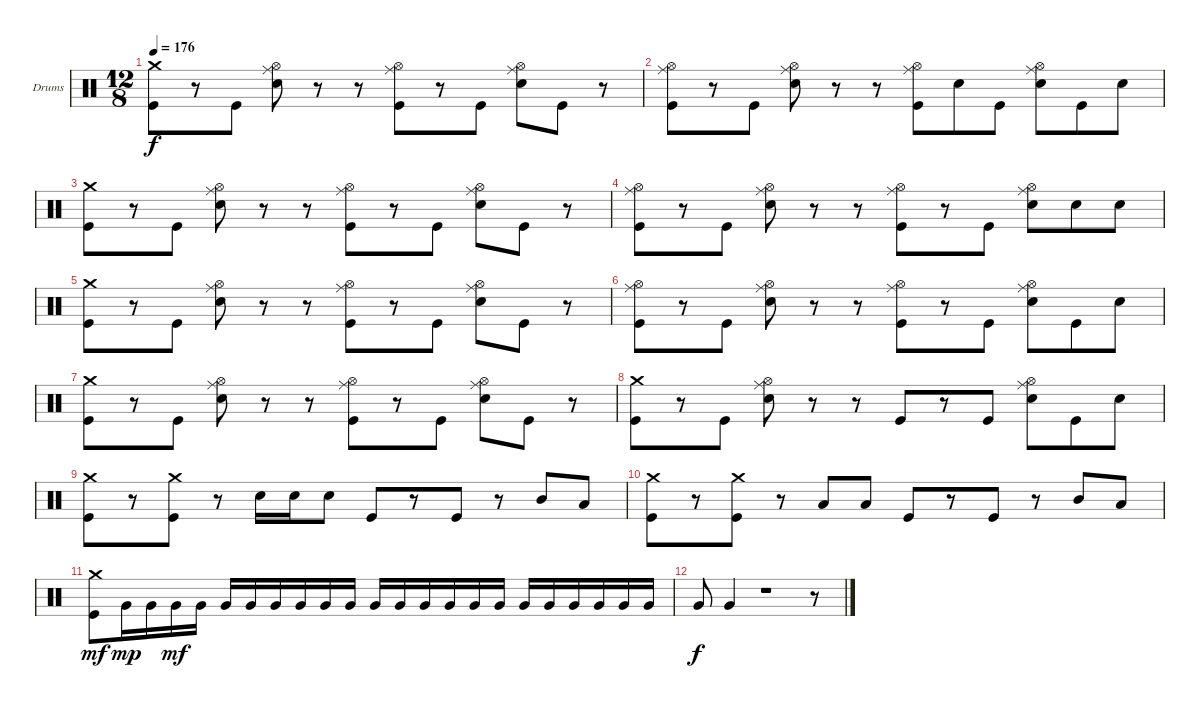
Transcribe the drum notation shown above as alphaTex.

\defaultSystemsLayout 4
\bracketExtendMode groupsimilarinstruments
\firstSystemTrackNameOrientation horizontal
\otherSystemsTrackNameOrientation horizontal
\track ("Drumkit" "Drums") {instrument percussion}
\staff {score}
\articulation defaults
\ts (12 8)
\tempo 176
\clef neutral
\scale
0.333333
\ks c
("Crash medium (hit)" "Kick (hit)").8{dy f} r.8 "Kick (hit)".8 ("Ride (middle)" "Hi-Hat (open)" "Snare (hit) 2").8 r.8 r.8 ("Ride (middle)" "Hi-Hat (open)" "Kick (hit)").8 r.8 "Kick (hit)".8 ("Ride (middle)" "Hi-Hat (open)" "Snare (hit) 2").8 "Kick (hit)".8 r.8 |
\scale
0.333333 ("Ride (middle)" "Hi-Hat (open)" "Kick (hit)").8 r.8 "Kick (hit)".8 ("Ride (middle)" "Hi-Hat (open)" "Snare (hit) 2").8 r.8 r.8 ("Ride (middle)" "Hi-Hat (open)" "Kick (hit)").8 "Snare (hit) 2".8 "Kick (hit)".8 ("Ride (middle)" "Hi-Hat (open)" "Snare (hit) 2").8 "Kick (hit)".8 "Snare (hit) 2".8 |
\scale
0.333333 ("Crash medium (hit)" "Kick (hit)").8 r.8 "Kick (hit)".8 ("Ride (middle)" "Hi-Hat (open)" "Snare (hit) 2").8 r.8 r.8 ("Ride (middle)" "Hi-Hat (open)" "Kick (hit)").8 r.8 "Kick (hit)".8 ("Ride (middle)" "Hi-Hat (open)" "Snare (hit) 2").8 "Kick (hit)".8 r.8 |
\scale
0.333333 ("Ride (middle)" "Hi-Hat (open)" "Kick (hit)").8 r.8 "Kick (hit)".8 ("Ride (middle)" "Hi-Hat (open)" "Snare (hit) 2").8 r.8 r.8 ("Ride (middle)" "Hi-Hat (open)" "Kick (hit)").8 r.8 "Kick (hit)".8 ("Ride (middle)" "Hi-Hat (open)" "Snare (hit) 2").8 "Snare (hit) 2".8 "Snare (hit) 2".8 |
\scale
0.333333 ("Crash medium (hit)" "Kick (hit)").8 r.8 "Kick (hit)".8 ("Ride (middle)" "Hi-Hat (open)" "Snare (hit) 2").8 r.8 r.8 ("Ride (middle)" "Hi-Hat (open)" "Kick (hit)").8 r.8 "Kick (hit)".8 ("Ride (middle)" "Hi-Hat (open)" "Snare (hit) 2").8 "Kick (hit)".8 r.8 |
\scale
0.333333 ("Ride (middle)" "Hi-Hat (open)" "Kick (hit)").8 r.8 "Kick (hit)".8 ("Ride (middle)" "Hi-Hat (open)" "Snare (hit) 2").8 r.8 r.8 ("Ride (middle)" "Hi-Hat (open)" "Kick (hit)").8 r.8 "Kick (hit)".8 ("Ride (middle)" "Hi-Hat (open)" "Snare (hit) 2").8 "Kick (hit)".8 "Snare (hit) 2".8 |
\scale
0.333333 ("Crash medium (hit)" "Kick (hit)").8 r.8 "Kick (hit)".8 ("Ride (middle)" "Hi-Hat (open)" "Snare (hit) 2").8 r.8 r.8 ("Ride (middle)" "Hi-Hat (open)" "Kick (hit)").8 r.8 "Kick (hit)".8 ("Ride (middle)" "Hi-Hat (open)" "Snare (hit) 2").8 "Kick (hit)".8 r.8 |
\scale
0.333333 ("Crash medium (hit)" "Kick (hit)").8 r.8 "Kick (hit)".8 ("Ride (middle)" "Hi-Hat (open)" "Snare (hit) 2").8 r.8 r.8 "Kick (hit)".8 r.8 "Kick (hit)".8 ("Ride (middle)" "Hi-Hat (open)" "Snare (hit) 2").8 "Kick (hit)".8 "Snare (hit) 2".8 |
\scale
0.333333 ("Crash medium (hit)" "Kick (hit)").8 r.8 ("Crash medium (hit)" "Kick (hit)").8 r.8 "Snare (hit) 2".16 "Snare (hit) 2".16 "Snare (hit) 2".8 "Kick (hit)".8 r.8 "Kick (hit)".8 r.8 "Mid Tom (hit)".8 "Low Tom (hit)".8 |
\scale
0.333333 ("Crash medium (hit)" "Kick (hit)").8 r.8 ("Crash medium (hit)" "Kick (hit)").8 r.8 "Low Tom (hit)".8 "Low Tom (hit)".8 "Kick (hit)".8 r.8 "Kick (hit)".8 r.8 "Mid Tom (hit)".8 "Low Tom (hit)".8 |
("Crash medium (hit)" "Kick (hit)").8{dy mf} "Very Low Tom (hit)".16{dy mp} "Very Low Tom (hit)".16 "Very Low Tom (hit)".16{dy mf} "Very Low Tom (hit)".16 "Very Low Tom (hit)".16 "Very Low Tom (hit)".16 "Very Low Tom (hit)".16 "Very Low Tom (hit)".16 "Very Low Tom (hit)".16 "Very Low Tom (hit)".16 "Very Low Tom (hit)".16 "Very Low Tom (hit)".16 "Very Low Tom (hit)".16 "Very Low Tom (hit)".16 "Very Low Tom (hit)".16 "Very Low Tom (hit)".16 "Very Low Tom (hit)".16 "Very Low Tom (hit)".16 "Very Low Tom (hit)".16 "Very Low Tom (hit)".16 "Very Low Tom (hit)".16 "Very Low Tom (hit)".16 |
"Very Low Tom (hit)".8{dy f} "Very Low Tom (hit)".4 r.1 r.8
